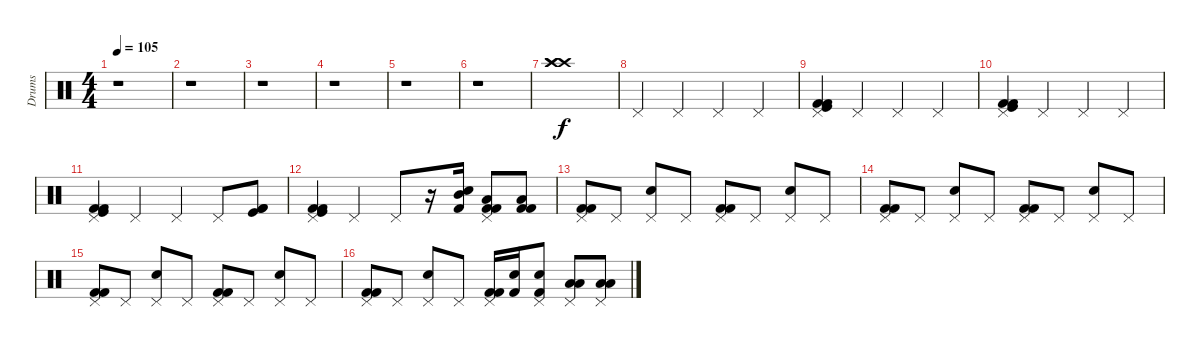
\track ("Drums" "Drums") {instrument percussion}
\staff {score}
\articulation defaults
\ts (4 4)
\tempo 105
\clef neutral
\ks c
r.1{dy f} |
r.1 |
r.1 |
r.1 |
r.1 |
r.1 |
("Crash high (hit)" "Crash high (hit)" "Crash high (hit)").1 |
"Pedal Hi-Hat (hit)".4 "Pedal Hi-Hat (hit)".4 "Pedal Hi-Hat (hit)".4 "Pedal Hi-Hat (hit)".4 |
("Pedal Hi-Hat (hit)" "Kick (hit) 2" "Kick (hit) 2" "Kick (hit)").4 "Pedal Hi-Hat (hit)".4 "Pedal Hi-Hat (hit)".4 "Pedal Hi-Hat (hit)".4 |
("Pedal Hi-Hat (hit)" "Kick (hit) 2" "Kick (hit) 2" "Kick (hit)").4 "Pedal Hi-Hat (hit)".4 "Pedal Hi-Hat (hit)".4 "Pedal Hi-Hat (hit)".4 |
("Pedal Hi-Hat (hit)" "Kick (hit) 2" "Kick (hit) 2" "Kick (hit)").4 "Pedal Hi-Hat (hit)".4 "Pedal Hi-Hat (hit)".4 "Pedal Hi-Hat (hit)".8 ("Kick (hit) 2" "Kick (hit) 2" "Kick (hit)").8 |
("Pedal Hi-Hat (hit)" "Kick (hit) 2" "Kick (hit) 2" "Kick (hit)").4 "Pedal Hi-Hat (hit)".4 "Pedal Hi-Hat (hit)".8 r.16 ("Kick (hit) 2" "Snare (hit) 2" "Mid Tom (hit)").16 ("Pedal Hi-Hat (hit)" "Kick (hit) 2" "Low Tom (hit)" "Kick (hit) 2").8 ("Kick (hit) 2" "Kick (hit) 2" "Low Tom (hit)").8 |
("Pedal Hi-Hat (hit)" "Kick (hit) 2" "Kick (hit) 2").8 "Pedal Hi-Hat (hit)".8 ("Pedal Hi-Hat (hit)" "Electric Snare (hit)").8 "Pedal Hi-Hat (hit)".8 ("Pedal Hi-Hat (hit)" "Kick (hit) 2" "Kick (hit) 2").8 "Pedal Hi-Hat (hit)".8 ("Pedal Hi-Hat (hit)" "Electric Snare (hit)").8 "Pedal Hi-Hat (hit)".8 |
("Pedal Hi-Hat (hit)" "Kick (hit) 2" "Kick (hit) 2").8 "Pedal Hi-Hat (hit)".8 ("Pedal Hi-Hat (hit)" "Electric Snare (hit)").8 "Pedal Hi-Hat (hit)".8 ("Pedal Hi-Hat (hit)" "Kick (hit) 2" "Kick (hit) 2").8 "Pedal Hi-Hat (hit)".8 ("Pedal Hi-Hat (hit)" "Electric Snare (hit)").8 "Pedal Hi-Hat (hit)".8 |
("Pedal Hi-Hat (hit)" "Kick (hit) 2" "Kick (hit) 2").8 "Pedal Hi-Hat (hit)".8 ("Pedal Hi-Hat (hit)" "Electric Snare (hit)").8 "Pedal Hi-Hat (hit)".8 ("Pedal Hi-Hat (hit)" "Kick (hit) 2" "Kick (hit) 2").8 "Pedal Hi-Hat (hit)".8 ("Pedal Hi-Hat (hit)" "Electric Snare (hit)").8 "Pedal Hi-Hat (hit)".8 |
("Pedal Hi-Hat (hit)" "Kick (hit) 2" "Kick (hit) 2").8 "Pedal Hi-Hat (hit)".8 ("Pedal Hi-Hat (hit)" "Electric Snare (hit)").8 "Pedal Hi-Hat (hit)".8 ("Pedal Hi-Hat (hit)" "Kick (hit) 2" "Kick (hit) 2").16 ("Electric Snare (hit)" "Kick (hit) 2").16 ("Pedal Hi-Hat (hit)" "Electric Snare (hit)" "Kick (hit) 2").8 ("Pedal Hi-Hat (hit)" "Low Floor Tom (hit)" "Low Floor Tom (hit)").8 ("Pedal Hi-Hat (hit)" "Low Floor Tom (hit)" "Low Floor Tom (hit)").8
